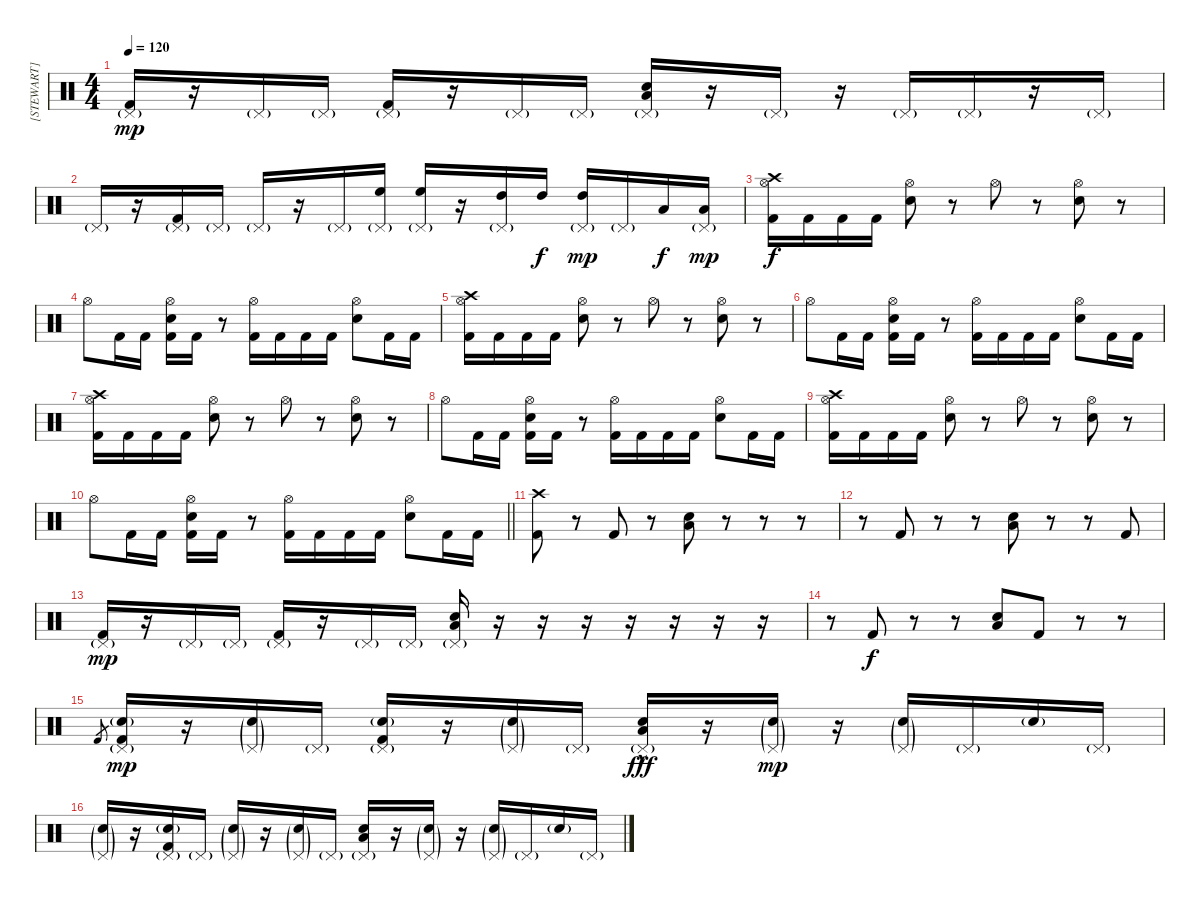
\track ("[STEWART]" "[STEWART]") {instrument percussion}
\staff {score}
\articulation defaults
\ts (4 4)
\tempo 120
\clef neutral
\ks c
("Pedal Hi-Hat (hit)"{g} "Kick (hit) 2").16{dy mp} r.16 "Pedal Hi-Hat (hit)"{g}.16 "Pedal Hi-Hat (hit)"{g}.16 ("Pedal Hi-Hat (hit)"{g} "Kick (hit) 2").16 r.16 "Pedal Hi-Hat (hit)"{g}.16 "Pedal Hi-Hat (hit)"{g}.16 ("Pedal Hi-Hat (hit)"{g} "Low Tom (hit)" "Electric Snare (hit)").16 r.16 "Pedal Hi-Hat (hit)"{g}.16 r.16 "Pedal Hi-Hat (hit)"{g}.16 "Pedal Hi-Hat (hit)"{g}.16 r.16 "Pedal Hi-Hat (hit)"{g}.16 |
"Pedal Hi-Hat (hit)"{g}.16 r.16 ("Pedal Hi-Hat (hit)"{g} "Kick (hit) 2").16 "Pedal Hi-Hat (hit)"{g}.16 "Pedal Hi-Hat (hit)"{g}.16 r.16 "Pedal Hi-Hat (hit)"{g}.16 ("Pedal Hi-Hat (hit)"{g} "High Floor Tom (hit)").16 ("Pedal Hi-Hat (hit)"{g} "High Floor Tom (hit)").16 r.16 ("Pedal Hi-Hat (hit)"{g} "High Tom (hit)").16 "High Tom (hit)".16{dy f} ("Pedal Hi-Hat (hit)"{g} "High Tom (hit)").16{dy mp} "Pedal Hi-Hat (hit)"{g}.16 "Low Tom (hit)".16{dy f} ("Pedal Hi-Hat (hit)"{g} "Low Tom (hit)").16{dy mp} |
("Crash high (hit)" "Kick (hit) 2" "Hi-Hat (open)").16{dy f} "Kick (hit) 2".16 "Kick (hit) 2".16 "Kick (hit) 2".16 ("Electric Snare (hit)" "Hi-Hat (open)").8 r.8 "Hi-Hat (open)".8 r.8 ("Electric Snare (hit)" "Hi-Hat (open)").8 r.8 |
"Hi-Hat (open)".8 "Kick (hit) 2".16 "Kick (hit) 2".16 ("Electric Snare (hit)" "Kick (hit) 2" "Hi-Hat (open)").16 "Kick (hit) 2".16 r.8 ("Kick (hit) 2" "Hi-Hat (open)").16 "Kick (hit) 2".16 "Kick (hit) 2".16 "Kick (hit) 2".16 ("Electric Snare (hit)" "Hi-Hat (open)").8 "Kick (hit) 2".16 "Kick (hit) 2".16 |
("Crash high (hit)" "Kick (hit) 2" "Hi-Hat (open)").16 "Kick (hit) 2".16 "Kick (hit) 2".16 "Kick (hit) 2".16 ("Electric Snare (hit)" "Hi-Hat (open)").8 r.8 "Hi-Hat (open)".8 r.8 ("Electric Snare (hit)" "Hi-Hat (open)").8 r.8 |
"Hi-Hat (open)".8 "Kick (hit) 2".16 "Kick (hit) 2".16 ("Electric Snare (hit)" "Kick (hit) 2" "Hi-Hat (open)").16 "Kick (hit) 2".16 r.8 ("Kick (hit) 2" "Hi-Hat (open)").16 "Kick (hit) 2".16 "Kick (hit) 2".16 "Kick (hit) 2".16 ("Electric Snare (hit)" "Hi-Hat (open)").8 "Kick (hit) 2".16 "Kick (hit) 2".16 |
("Crash high (hit)" "Kick (hit) 2" "Hi-Hat (open)").16 "Kick (hit) 2".16 "Kick (hit) 2".16 "Kick (hit) 2".16 ("Electric Snare (hit)" "Hi-Hat (open)").8 r.8 "Hi-Hat (open)".8 r.8 ("Electric Snare (hit)" "Hi-Hat (open)").8 r.8 |
"Hi-Hat (open)".8 "Kick (hit) 2".16 "Kick (hit) 2".16 ("Electric Snare (hit)" "Kick (hit) 2" "Hi-Hat (open)").16 "Kick (hit) 2".16 r.8 ("Kick (hit) 2" "Hi-Hat (open)").16 "Kick (hit) 2".16 "Kick (hit) 2".16 "Kick (hit) 2".16 ("Electric Snare (hit)" "Hi-Hat (open)").8 "Kick (hit) 2".16 "Kick (hit) 2".16 |
("Crash high (hit)" "Kick (hit) 2" "Hi-Hat (open)").16 "Kick (hit) 2".16 "Kick (hit) 2".16 "Kick (hit) 2".16 ("Electric Snare (hit)" "Hi-Hat (open)").8 r.8 "Hi-Hat (open)".8 r.8 ("Electric Snare (hit)" "Hi-Hat (open)").8 r.8 |
\barLineRight lightlight "Hi-Hat (open)".8 "Kick (hit) 2".16 "Kick (hit) 2".16
("Electric Snare (hit)" "Kick (hit) 2" "Hi-Hat (open)").16 "Kick (hit) 2".16 r.8 ("Kick (hit) 2" "Hi-Hat (open)").16 "Kick (hit) 2".16 "Kick (hit) 2".16 "Kick (hit) 2".16 ("Electric Snare (hit)" "Hi-Hat (open)").8 "Kick (hit) 2".16 "Kick (hit) 2".16 |
("Crash high (hit)" "Kick (hit) 2").8 r.8 "Kick (hit) 2".8 r.8 ("Low Tom (hit)" "Electric Snare (hit)").8 r.8 r.8 r.8 |
r.8 "Kick (hit) 2".8 r.8 r.8 ("Low Tom (hit)" "Electric Snare (hit)").8 r.8 r.8 "Kick (hit) 2".8 |
("Pedal Hi-Hat (hit)"{g} "Kick (hit) 2").16{dy mp} r.16 "Pedal Hi-Hat (hit)"{g}.16 "Pedal Hi-Hat (hit)"{g}.16 ("Pedal Hi-Hat (hit)"{g} "Kick (hit) 2").16 r.16 "Pedal Hi-Hat (hit)"{g}.16 "Pedal Hi-Hat (hit)"{g}.16 ("Pedal Hi-Hat (hit)"{g} "Low Tom (hit)" "Electric Snare (hit)").16 r.16 r.16 r.16 r.16 r.16 r.16 r.16 |
r.8 "Kick (hit) 2".8{dy f} r.8 r.8 ("Low Tom (hit)" "Electric Snare (hit)").8 "Kick (hit) 2".8 r.8 r.8 |
"Kick (hit) 2".8{gr} ("Pedal Hi-Hat (hit)"{g} "Electric Snare (hit)"{g} "Kick (hit) 2").16{dy mp} r.16 ("Pedal Hi-Hat (hit)"{g} "Electric Snare (hit)"{g}).16 "Pedal Hi-Hat (hit)"{g}.16 ("Pedal Hi-Hat (hit)"{g} "Electric Snare (hit)"{g} "Kick (hit) 2").16 r.16 ("Pedal Hi-Hat (hit)"{g} "Electric Snare (hit)"{g}).16 "Pedal Hi-Hat (hit)"{g}.16 ("Pedal Hi-Hat (hit)"{g} "Low Tom (hit)" "Electric Snare (hit)"{hac}).16{dy fff} r.16 ("Pedal Hi-Hat (hit)"{g} "Electric Snare (hit)"{g}).16{dy mp} r.16 ("Pedal Hi-Hat (hit)"{g} "Electric Snare (hit)"{g}).16 "Pedal Hi-Hat (hit)"{g}.16 "Electric Snare (hit)"{g}.16 "Pedal Hi-Hat (hit)"{g}.16 |
("Pedal Hi-Hat (hit)"{g} "Electric Snare (hit)"{g}).16 r.16 ("Pedal Hi-Hat (hit)"{g} "Electric Snare (hit)"{g} "Kick (hit) 2").16 "Pedal Hi-Hat (hit)"{g}.16 ("Pedal Hi-Hat (hit)"{g} "Electric Snare (hit)"{g}).16 r.16 ("Pedal Hi-Hat (hit)"{g} "Electric Snare (hit)"{g}).16 "Pedal Hi-Hat (hit)"{g}.16 ("Pedal Hi-Hat (hit)"{g} "Low Tom (hit)" "Electric Snare (hit)").16 r.16 ("Pedal Hi-Hat (hit)"{g} "Electric Snare (hit)"{g}).16 r.16 ("Pedal Hi-Hat (hit)"{g} "Electric Snare (hit)"{g}).16 "Pedal Hi-Hat (hit)"{g}.16 "Electric Snare (hit)"{g}.16 "Pedal Hi-Hat (hit)"{g}.16
